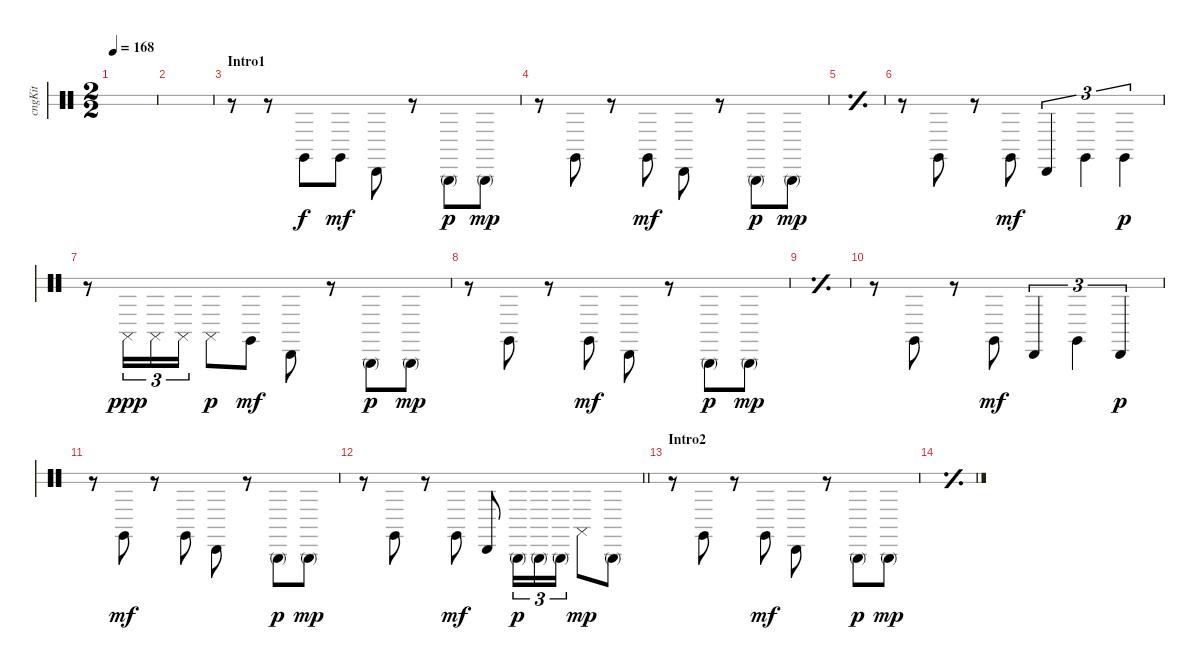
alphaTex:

\bracketExtendMode groupsimilarinstruments
\multiTrackTrackNamePolicy hidden
\otherSystemsTrackNameOrientation horizontal
\track ("Congas" "cngKit") {instrument percussion}
\staff {score 2}
\articulation defaults
\ts (2 2)
\tempo 168
\clef neutral
\ks c
|
|
\section ("" "Intro1")
r.8{beam Down} r.8{beam Down} "Conga high (hit)".8{beam Down} "Conga high (hit)".8{dy mf beam Down} "Conga low (hit)".8{beam Down} r.8{beam Down} "Conga high (mute)".8{dy p beam Down} "Conga high (mute)".8{dy mp beam Down} |
r.8{beam Down} "Conga high (hit)".8{beam Down} r.8{beam Down} "Conga high (hit)".8{dy mf beam Down} "Conga low (hit)".8{beam Down} r.8{beam Down} "Conga high (mute)".8{dy p beam Down} "Conga high (mute)".8{dy mp beam Down} |
\simile simple
|
\simile none
r.8{beam Down} "Conga high (hit)".8{beam Down} r.8{beam Down} "Conga high (hit)".8{dy mf beam Down} "Conga low (hit)".4{tu (3 2) beam Up} "Conga high (hit)".4{tu (3 2) beam Down} "Conga high (hit)".4{tu (3 2) dy p beam Down} |
r.8{beam Down} "Conga high (slap)".16{tu (3 2) dy ppp beam Down} "Conga high (slap)".16{tu (3 2) beam Down} "Conga high (slap)".16{tu (3 2) beam Down} "Conga high (slap)".8{dy p beam Down} "Conga high (hit)".8{dy mf beam Down} "Conga low (hit)".8{beam Down} r.8{beam Down} "Conga high (mute)".8{dy p beam Down} "Conga high (mute)".8{dy mp beam Down} |
r.8{beam Down} "Conga high (hit)".8{beam Down} r.8{beam Down} "Conga high (hit)".8{dy mf beam Down} "Conga low (hit)".8{beam Down} r.8{beam Down} "Conga high (mute)".8{dy p beam Down} "Conga high (mute)".8{dy mp beam Down} |
\simile simple
|
\simile none
r.8{beam Down} "Conga high (hit)".8{beam Down} r.8{beam Down} "Conga high (hit)".8{dy mf beam Down} "Conga low (hit)".4{tu (3 2) beam Up} "Conga high (hit)".4{tu (3 2) beam Down} "Conga low (hit)".4{tu (3 2) dy p beam Up} |
r.8{beam Down} "Conga high (hit)".8{dy mf beam Down} r.8{beam Down} "Conga high (hit)".8{beam Down} "Conga low (hit)".8{beam Down} r.8{beam Down} "Conga high (mute)".8{dy p beam Down} "Conga high (mute)".8{dy mp beam Down} |
\barLineRight lightlight
r.8{beam Down} "Conga high (hit)".8{beam Down} r.8{beam Down} "Conga high (hit)".8{dy mf beam Down} "Conga low (hit)".8{beam Up} "Conga high (mute)".16{tu (3 2) dy p beam Down} "Conga high (mute)".16{tu (3 2) beam Down} "Conga high (mute)".16{tu (3 2) beam Down} "Conga high (slap)".8{dy mp beam Down} "Conga high (mute)".8{beam Down} |
\section ("" "Intro2")
r.8{beam Down} "Conga high (hit)".8{beam Down} r.8{beam Down} "Conga high (hit)".8{dy mf beam Down} "Conga low (hit)".8{beam Down} r.8{beam Down} "Conga high (mute)".8{dy p beam Down} "Conga high (mute)".8{dy mp beam Down} |
\simile simple
